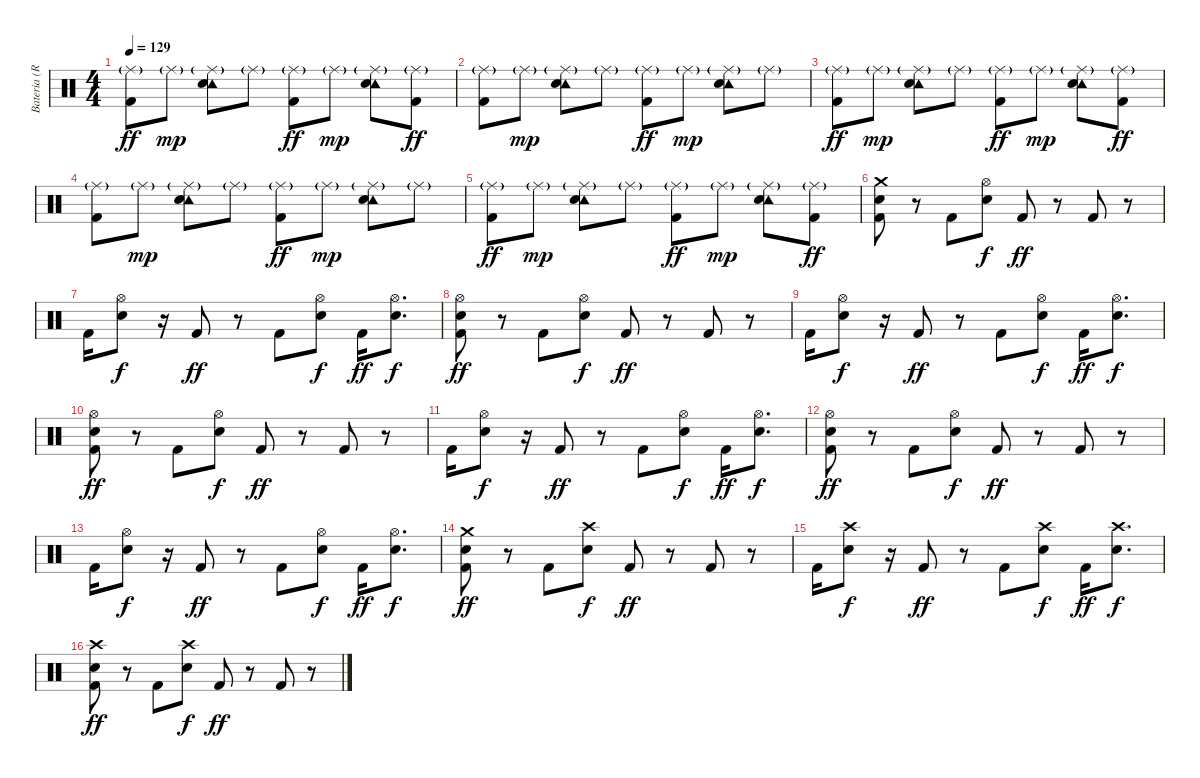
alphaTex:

\track ("Bateria (Roy)" "Bateria (R") {instrument percussion}
\staff {score}
\articulation defaults
\ts (4 4)
\tempo 129
\clef neutral
\ks c
("Ride (middle)"{g} "Kick (hit) 2").8{dy ff} "Ride (middle)"{g}.8{dy mp} ("Ride (middle)"{g} "Tambourine (hit)" "Electric Snare (hit)").8 "Ride (middle)"{g}.8 ("Ride (middle)"{g} "Kick (hit) 2").8{dy ff} "Ride (middle)"{g}.8{dy mp} ("Ride (middle)"{g} "Tambourine (hit)" "Electric Snare (hit)").8 ("Ride (middle)"{g} "Kick (hit) 2").8{dy ff} |
("Ride (middle)"{g} "Kick (hit) 2").8 "Ride (middle)"{g}.8{dy mp} ("Ride (middle)"{g} "Tambourine (hit)" "Electric Snare (hit)").8 "Ride (middle)"{g}.8 ("Ride (middle)"{g} "Kick (hit) 2").8{dy ff} "Ride (middle)"{g}.8{dy mp} ("Ride (middle)"{g} "Tambourine (hit)" "Electric Snare (hit)").8 "Ride (middle)"{g}.8 |
("Ride (middle)"{g} "Kick (hit) 2").8{dy ff} "Ride (middle)"{g}.8{dy mp} ("Ride (middle)"{g} "Tambourine (hit)" "Electric Snare (hit)").8 "Ride (middle)"{g}.8 ("Ride (middle)"{g} "Kick (hit) 2").8{dy ff} "Ride (middle)"{g}.8{dy mp} ("Ride (middle)"{g} "Tambourine (hit)" "Electric Snare (hit)").8 ("Ride (middle)"{g} "Kick (hit) 2").8{dy ff} |
("Ride (middle)"{g} "Kick (hit) 2").8 "Ride (middle)"{g}.8{dy mp} ("Ride (middle)"{g} "Tambourine (hit)" "Electric Snare (hit)").8 "Ride (middle)"{g}.8 ("Ride (middle)"{g} "Kick (hit) 2").8{dy ff} "Ride (middle)"{g}.8{dy mp} ("Ride (middle)"{g} "Tambourine (hit)" "Electric Snare (hit)").8 "Ride (middle)"{g}.8 |
("Ride (middle)"{g} "Kick (hit) 2").8{dy ff} "Ride (middle)"{g}.8{dy mp} ("Ride (middle)"{g} "Tambourine (hit)" "Electric Snare (hit)").8 "Ride (middle)"{g}.8 ("Ride (middle)"{g} "Kick (hit) 2").8{dy ff} "Ride (middle)"{g}.8{dy mp} ("Ride (middle)"{g} "Tambourine (hit)" "Electric Snare (hit)").8 ("Ride (middle)"{g} "Kick (hit) 2").8{dy ff} |
("Crash medium (hit)" "Electric Snare (hit)" "Kick (hit) 2").8 r.8 "Kick (hit) 2".8 ("Hi-Hat (open)" "Electric Snare (hit)").8{dy f} "Kick (hit) 2".8{dy ff} r.8 "Kick (hit) 2".8 r.8 |
"Kick (hit) 2".16 ("Hi-Hat (open)" "Electric Snare (hit)").8{dy f} r.16 "Kick (hit) 2".8{dy ff} r.8 "Kick (hit) 2".8 ("Hi-Hat (open)" "Electric Snare (hit)").8{dy f} "Kick (hit) 2".16{dy ff} ("Hi-Hat (open)" "Electric Snare (hit)").8{d dy f} |
("Hi-Hat (open)" "Electric Snare (hit)" "Kick (hit) 2").8{dy ff} r.8 "Kick (hit) 2".8 ("Hi-Hat (open)" "Electric Snare (hit)").8{dy f} "Kick (hit) 2".8{dy ff} r.8 "Kick (hit) 2".8 r.8 |
"Kick (hit) 2".16 ("Hi-Hat (open)" "Electric Snare (hit)").8{dy f} r.16 "Kick (hit) 2".8{dy ff} r.8 "Kick (hit) 2".8 ("Hi-Hat (open)" "Electric Snare (hit)").8{dy f} "Kick (hit) 2".16{dy ff} ("Hi-Hat (open)" "Electric Snare (hit)").8{d dy f} |
("Hi-Hat (open)" "Electric Snare (hit)" "Kick (hit) 2").8{dy ff} r.8 "Kick (hit) 2".8 ("Hi-Hat (open)" "Electric Snare (hit)").8{dy f} "Kick (hit) 2".8{dy ff} r.8 "Kick (hit) 2".8 r.8 |
"Kick (hit) 2".16 ("Hi-Hat (open)" "Electric Snare (hit)").8{dy f} r.16 "Kick (hit) 2".8{dy ff} r.8 "Kick (hit) 2".8 ("Hi-Hat (open)" "Electric Snare (hit)").8{dy f} "Kick (hit) 2".16{dy ff} ("Hi-Hat (open)" "Electric Snare (hit)").8{d dy f} |
("Hi-Hat (open)" "Electric Snare (hit)" "Kick (hit) 2").8{dy ff} r.8 "Kick (hit) 2".8 ("Hi-Hat (open)" "Electric Snare (hit)").8{dy f} "Kick (hit) 2".8{dy ff} r.8 "Kick (hit) 2".8 r.8 |
"Kick (hit) 2".16 ("Hi-Hat (open)" "Electric Snare (hit)").8{dy f} r.16 "Kick (hit) 2".8{dy ff} r.8 "Kick (hit) 2".8 ("Hi-Hat (open)" "Electric Snare (hit)").8{dy f} "Kick (hit) 2".16{dy ff} ("Hi-Hat (open)" "Electric Snare (hit)").8{d dy f} |
("Crash medium (hit)" "Electric Snare (hit)" "Kick (hit) 2").8{dy ff} r.8 "Kick (hit) 2".8 ("Crash high (hit)" "Electric Snare (hit)").8{dy f} "Kick (hit) 2".8{dy ff} r.8 "Kick (hit) 2".8 r.8 |
"Kick (hit) 2".16 ("Crash high (hit)" "Electric Snare (hit)").8{dy f} r.16 "Kick (hit) 2".8{dy ff} r.8 "Kick (hit) 2".8 ("Crash high (hit)" "Electric Snare (hit)").8{dy f} "Kick (hit) 2".16{dy ff} ("Crash high (hit)" "Electric Snare (hit)").8{d dy f} |
("Crash high (hit)" "Electric Snare (hit)" "Kick (hit) 2").8{dy ff} r.8 "Kick (hit) 2".8 ("Crash high (hit)" "Electric Snare (hit)").8{dy f} "Kick (hit) 2".8{dy ff} r.8 "Kick (hit) 2".8 r.8
